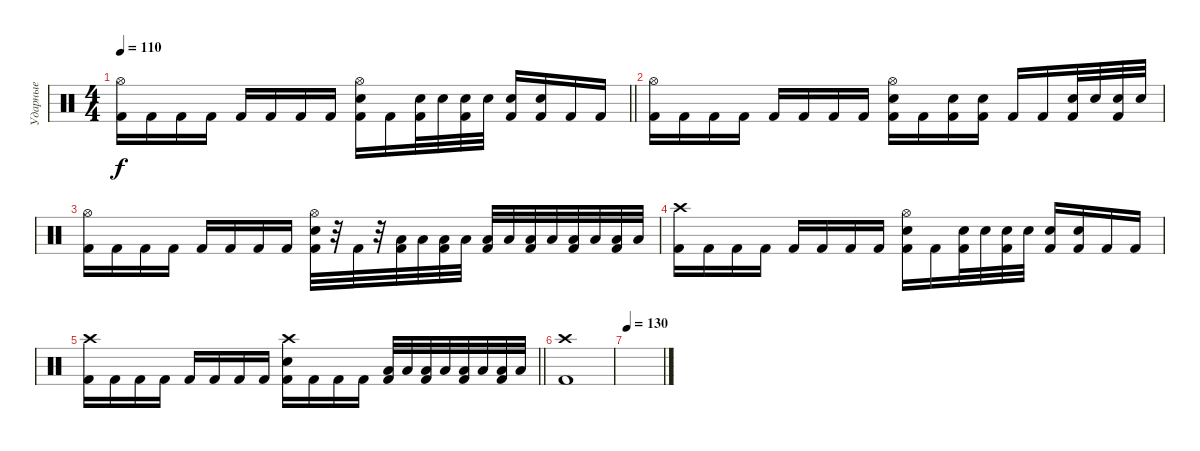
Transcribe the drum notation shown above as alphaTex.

\track ("Ударные" "Ударные") {instrument percussion}
\staff {score}
\articulation defaults
\ts (4 4)
\tempo 110
\clef neutral
\barLineRight lightlight
\ks c
("Hi-Hat (open)" "Kick (hit) 2").16{dy f} "Kick (hit) 2".16 "Kick (hit) 2".16 "Kick (hit) 2".16 "Kick (hit) 2".16 "Kick (hit) 2".16 "Kick (hit) 2".16 "Kick (hit) 2".16 ("Hi-Hat (open)" "Electric Snare (hit)" "Kick (hit) 2").16 "Kick (hit) 2".16 ("Electric Snare (hit)" "Kick (hit) 2").32 "Electric Snare (hit)".32 ("Electric Snare (hit)" "Kick (hit) 2").32 "Electric Snare (hit)".32 ("Electric Snare (hit)" "Kick (hit) 2").16 ("Electric Snare (hit)" "Kick (hit) 2").16 "Kick (hit) 2".16 "Kick (hit) 2".16 |
("Hi-Hat (open)" "Kick (hit) 2").16 "Kick (hit) 2".16 "Kick (hit) 2".16 "Kick (hit) 2".16 "Kick (hit) 2".16 "Kick (hit) 2".16 "Kick (hit) 2".16 "Kick (hit) 2".16 ("Hi-Hat (open)" "Electric Snare (hit)" "Kick (hit) 2").16 "Kick (hit) 2".16 ("Electric Snare (hit)" "Kick (hit) 2").16 ("Electric Snare (hit)" "Kick (hit) 2").16 "Kick (hit) 2".16 "Kick (hit) 2".16 ("Electric Snare (hit)" "Kick (hit) 2").32 "Electric Snare (hit)".32 ("Electric Snare (hit)" "Kick (hit) 2").32 "Electric Snare (hit)".32 |
("Hi-Hat (open)" "Kick (hit) 2").16 "Kick (hit) 2".16 "Kick (hit) 2".16 "Kick (hit) 2".16 "Kick (hit) 2".16 "Kick (hit) 2".16 "Kick (hit) 2".16 "Kick (hit) 2".16 ("Hi-Hat (open)" "Electric Snare (hit)" "Kick (hit) 2").32 r.32 "Kick (hit) 2".32 r.32 ("Low Tom (hit)" "Kick (hit) 2").32 "Low Tom (hit)".32 ("Low Tom (hit)" "Kick (hit) 2").32 "Low Tom (hit)".32 ("Low Floor Tom (hit)" "Kick (hit) 2").32 "Low Floor Tom (hit)".32 ("Low Floor Tom (hit)" "Kick (hit) 2").32 "Low Floor Tom (hit)".32 ("Low Floor Tom (hit)" "Kick (hit) 2").32 "Low Floor Tom (hit)".32 ("Low Floor Tom (hit)" "Kick (hit) 2").32 "Low Floor Tom (hit)".32 |
("Crash high (hit)" "Kick (hit) 2").16 "Kick (hit) 2".16 "Kick (hit) 2".16 "Kick (hit) 2".16 "Kick (hit) 2".16 "Kick (hit) 2".16 "Kick (hit) 2".16 "Kick (hit) 2".16 ("Hi-Hat (open)" "Electric Snare (hit)" "Kick (hit) 2").16 "Kick (hit) 2".16 ("Electric Snare (hit)" "Kick (hit) 2").32 "Electric Snare (hit)".32 ("Electric Snare (hit)" "Kick (hit) 2").32 "Electric Snare (hit)".32 ("Electric Snare (hit)" "Kick (hit) 2").16 ("Electric Snare (hit)" "Kick (hit) 2").16 "Kick (hit) 2".16 "Kick (hit) 2".16 |
\barLineRight lightlight
("Crash high (hit)" "Kick (hit) 2").16 "Kick (hit) 2".16 "Kick (hit) 2".16 "Kick (hit) 2".16 "Kick (hit) 2".16 "Kick (hit) 2".16 "Kick (hit) 2".16 "Kick (hit) 2".16 ("Crash high (hit)" "Electric Snare (hit)" "Kick (hit) 2").16 "Kick (hit) 2".16 "Kick (hit) 2".16 "Kick (hit) 2".16 ("Low Tom (hit)" "Kick (hit) 2").32 "Low Tom (hit)".32 ("Low Tom (hit)" "Kick (hit) 2").32 "Low Tom (hit)".32 ("Low Floor Tom (hit)" "Kick (hit) 2").32 "Low Floor Tom (hit)".32 ("Low Floor Tom (hit)" "Kick (hit) 2").32 "Low Floor Tom (hit)".32 |
("Crash high (hit)" "Kick (hit) 2").1 |
\tempo 130
